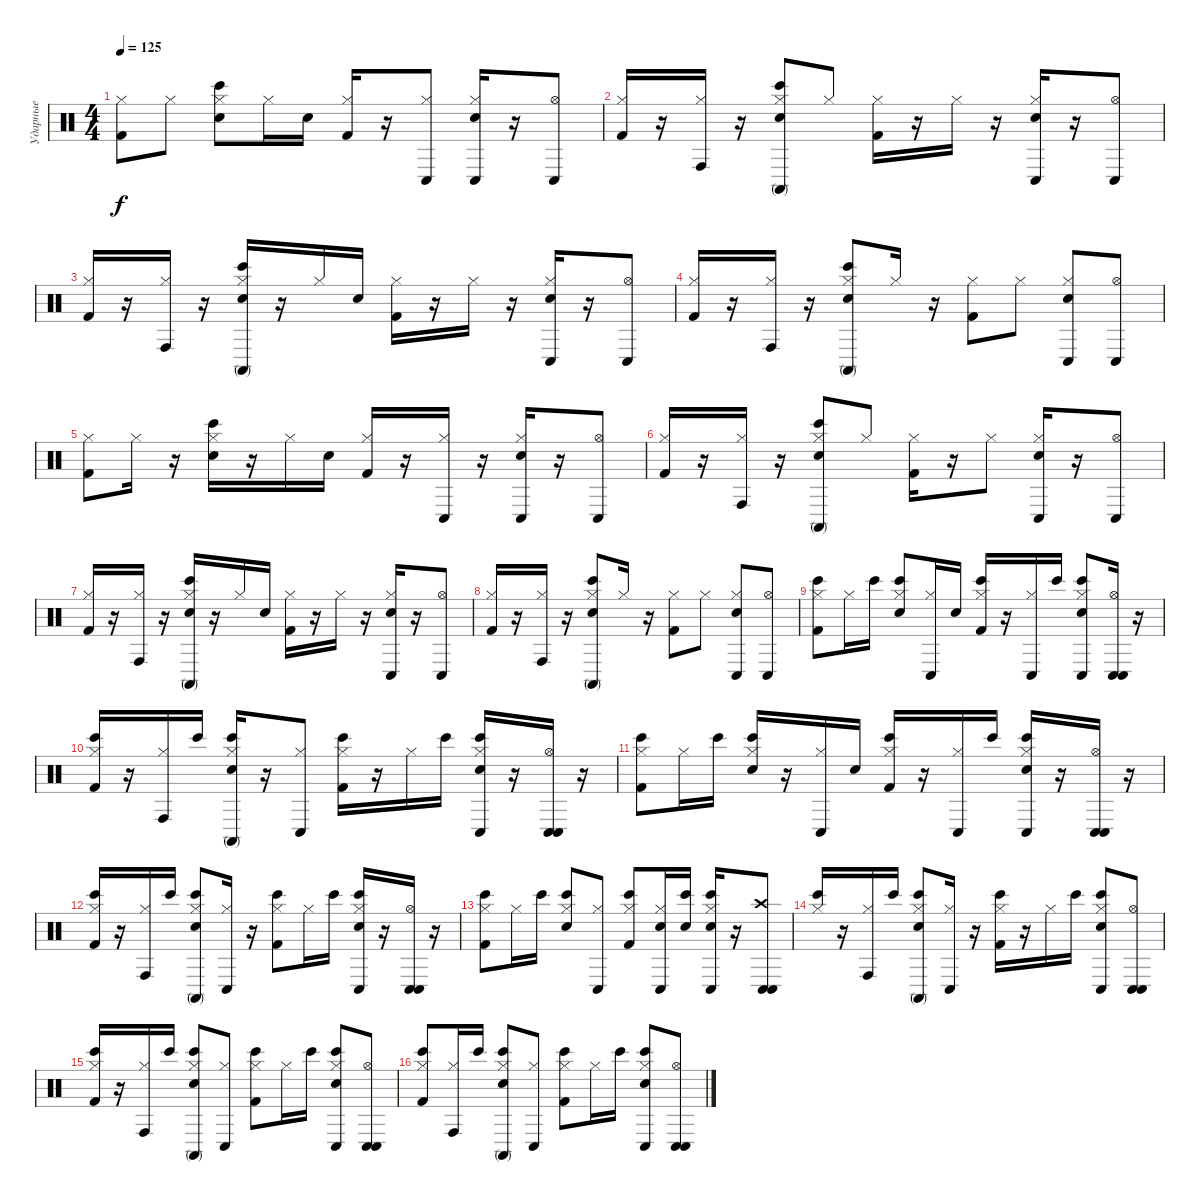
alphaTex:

\track ("Ударные" "Ударные") {instrument percussion}
\staff {score}
\articulation defaults
\ts (4 4)
\tempo 125
\clef neutral
\ks c
("Hi-Hat (closed)" "Kick (hit) 2").8{dy f} "Hi-Hat (closed)".8 ("Hi-Hat (closed)" "Bongo High (hit)" "Electric Snare (hit)").8 "Hi-Hat (closed)".16 "Electric Snare (hit)".16 ("Hi-Hat (closed)" "Kick (hit) 2").16 r.16 ("Hi-Hat (closed)" "Conga low (hit)").8 ("Hi-Hat (closed)" "Conga low (hit)" "Electric Snare (hit)").16 r.16 ("Hi-Hat (open)" "Conga low (hit)").8 |
("Hi-Hat (closed)" "Kick (hit) 2").16 r.16 ("Hi-Hat (closed)" "Conga high (hit)").16 r.16 ("Hi-Hat (closed)" "Bongo High (hit)" "Conga high (mute)" "Electric Snare (hit)").8 "Hi-Hat (closed)".8 ("Hi-Hat (closed)" "Kick (hit) 2").16 r.16 "Hi-Hat (closed)".16 r.16 ("Hi-Hat (closed)" "Conga low (hit)" "Electric Snare (hit)").16 r.16 ("Hi-Hat (open)" "Conga low (hit)").8 |
("Hi-Hat (closed)" "Kick (hit) 2").16 r.16 ("Hi-Hat (closed)" "Conga high (hit)").16 r.16 ("Hi-Hat (closed)" "Bongo High (hit)" "Conga high (mute)" "Electric Snare (hit)").16 r.16 "Hi-Hat (closed)".16 "Electric Snare (hit)".16 ("Hi-Hat (closed)" "Kick (hit) 2").16 r.16 "Hi-Hat (closed)".16 r.16 ("Hi-Hat (closed)" "Conga low (hit)" "Electric Snare (hit)").16 r.16 ("Hi-Hat (open)" "Conga low (hit)").8 |
("Hi-Hat (closed)" "Kick (hit) 2").16 r.16 ("Hi-Hat (closed)" "Conga high (hit)").16 r.16 ("Hi-Hat (closed)" "Bongo High (hit)" "Conga high (mute)" "Electric Snare (hit)").8 "Hi-Hat (closed)".16 r.16 ("Hi-Hat (closed)" "Kick (hit) 2").8 "Hi-Hat (closed)".8 ("Hi-Hat (closed)" "Conga low (hit)" "Electric Snare (hit)").8 ("Hi-Hat (open)" "Conga low (hit)").8 |
("Hi-Hat (closed)" "Kick (hit) 2").8 "Hi-Hat (closed)".16 r.16 ("Hi-Hat (closed)" "Bongo High (hit)" "Electric Snare (hit)").16 r.16 "Hi-Hat (closed)".16 "Electric Snare (hit)".16 ("Hi-Hat (closed)" "Kick (hit) 2").16 r.16 ("Hi-Hat (closed)" "Conga low (hit)").16 r.16 ("Hi-Hat (closed)" "Conga low (hit)" "Electric Snare (hit)").16 r.16 ("Hi-Hat (open)" "Conga low (hit)").8 |
("Hi-Hat (closed)" "Kick (hit) 2").16 r.16 ("Hi-Hat (closed)" "Conga high (hit)").16 r.16 ("Hi-Hat (closed)" "Bongo High (hit)" "Conga high (mute)" "Electric Snare (hit)").8 "Hi-Hat (closed)".8 ("Hi-Hat (closed)" "Kick (hit) 2").16 r.16 "Hi-Hat (closed)".8 ("Hi-Hat (closed)" "Conga low (hit)" "Electric Snare (hit)").16 r.16 ("Hi-Hat (open)" "Conga low (hit)").8 |
("Hi-Hat (closed)" "Kick (hit) 2").16 r.16 ("Hi-Hat (closed)" "Conga high (hit)").16 r.16 ("Hi-Hat (closed)" "Bongo High (hit)" "Conga high (mute)" "Electric Snare (hit)").16 r.16 "Hi-Hat (closed)".16 "Electric Snare (hit)".16 ("Hi-Hat (closed)" "Kick (hit) 2").16 r.16 "Hi-Hat (closed)".16 r.16 ("Hi-Hat (closed)" "Conga low (hit)" "Electric Snare (hit)").16 r.16 ("Hi-Hat (open)" "Conga low (hit)").8 |
("Hi-Hat (closed)" "Kick (hit) 2").16 r.16 ("Hi-Hat (closed)" "Conga high (hit)").16 r.16 ("Hi-Hat (closed)" "Bongo High (hit)" "Conga high (mute)" "Electric Snare (hit)").8 "Hi-Hat (closed)".16 r.16 ("Hi-Hat (closed)" "Kick (hit) 2").8 "Hi-Hat (closed)".8 ("Hi-Hat (closed)" "Conga low (hit)" "Electric Snare (hit)").8 ("Hi-Hat (open)" "Conga low (hit)").8 |
("Hi-Hat (closed)" "Bongo High (hit)" "Kick (hit) 2").8 "Hi-Hat (closed)".16 "Bongo High (hit)".16 ("Hi-Hat (closed)" "Bongo High (hit)" "Electric Snare (hit)").8 ("Hi-Hat (closed)" "Conga low (hit)").16 "Electric Snare (hit)".16 ("Hi-Hat (closed)" "Bongo High (hit)" "Kick (hit) 2").16 r.16 ("Hi-Hat (closed)" "Conga low (hit)").16 "Bongo High (hit)".16 ("Hi-Hat (closed)" "Bongo High (hit)" "Conga low (hit)" "Electric Snare (hit)").8 ("Hi-Hat (open)" "Conga low (hit)" "Conga low (hit)").16 r.16 |
("Hi-Hat (closed)" "Bongo High (hit)" "Kick (hit) 2").16 r.16 ("Hi-Hat (closed)" "Conga high (hit)").16 "Bongo High (hit)".16 ("Hi-Hat (closed)" "Bongo High (hit)" "Conga high (mute)" "Electric Snare (hit)").16 r.16 ("Hi-Hat (closed)" "Conga low (hit)").8 ("Hi-Hat (closed)" "Bongo High (hit)" "Kick (hit) 2").16 r.16 "Hi-Hat (closed)".16 "Bongo High (hit)".16 ("Hi-Hat (closed)" "Bongo High (hit)" "Conga low (hit)" "Electric Snare (hit)").16 r.16 ("Hi-Hat (open)" "Conga low (hit)" "Conga low (hit)").16 r.16 |
("Hi-Hat (closed)" "Bongo High (hit)" "Kick (hit) 2").8 "Hi-Hat (closed)".16 "Bongo High (hit)".16 ("Hi-Hat (closed)" "Bongo High (hit)" "Electric Snare (hit)").16 r.16 ("Hi-Hat (closed)" "Conga low (hit)").16 "Electric Snare (hit)".16 ("Hi-Hat (closed)" "Bongo High (hit)" "Kick (hit) 2").16 r.16 ("Hi-Hat (closed)" "Conga low (hit)").16 "Bongo High (hit)".16 ("Hi-Hat (closed)" "Bongo High (hit)" "Conga low (hit)" "Electric Snare (hit)").16 r.16 ("Hi-Hat (open)" "Conga low (hit)" "Conga low (hit)").16 r.16 |
("Hi-Hat (closed)" "Bongo High (hit)" "Kick (hit) 2").16 r.16 ("Hi-Hat (closed)" "Conga high (hit)").16 "Bongo High (hit)".16 ("Hi-Hat (closed)" "Bongo High (hit)" "Conga high (mute)" "Electric Snare (hit)").8 ("Hi-Hat (closed)" "Conga low (hit)").16 r.16 ("Hi-Hat (closed)" "Bongo High (hit)" "Kick (hit) 2").8 "Hi-Hat (closed)".16 "Bongo High (hit)".16 ("Hi-Hat (closed)" "Bongo High (hit)" "Conga low (hit)" "Electric Snare (hit)").16 r.16 ("Hi-Hat (open)" "Conga low (hit)" "Conga low (hit)").16 r.16 |
("Hi-Hat (closed)" "Bongo High (hit)" "Kick (hit) 2").8 "Hi-Hat (closed)".16 "Bongo High (hit)".16 ("Hi-Hat (closed)" "Bongo High (hit)" "Electric Snare (hit)").8 ("Hi-Hat (closed)" "Conga low (hit)").8 ("Hi-Hat (closed)" "Bongo High (hit)" "Kick (hit) 2").8 ("Hi-Hat (closed)" "Conga low (hit)" "Electric Snare (hit)").16 ("Bongo High (hit)" "Electric Snare (hit)").16 ("Hi-Hat (closed)" "Bongo High (hit)" "Conga low (hit)" "Electric Snare (hit)").16 r.16 ("Crash high (hit)" "Conga low (hit)" "Conga low (hit)").8 |
("Hi-Hat (closed)" "Bongo High (hit)").16 r.16 ("Hi-Hat (closed)" "Conga high (hit)").16 "Bongo High (hit)".16 ("Hi-Hat (closed)" "Bongo High (hit)" "Conga high (mute)" "Electric Snare (hit)").8 ("Hi-Hat (closed)" "Conga low (hit)").16 r.16 ("Hi-Hat (closed)" "Bongo High (hit)" "Kick (hit) 2").16 r.16 "Hi-Hat (closed)".16 "Bongo High (hit)".16 ("Hi-Hat (closed)" "Bongo High (hit)" "Conga low (hit)" "Electric Snare (hit)").8 ("Hi-Hat (open)" "Conga low (hit)" "Conga low (hit)").8 |
("Hi-Hat (closed)" "Bongo High (hit)" "Kick (hit) 2").16 r.16 ("Hi-Hat (closed)" "Conga high (hit)").16 "Bongo High (hit)".16 ("Hi-Hat (closed)" "Bongo High (hit)" "Conga high (mute)" "Electric Snare (hit)").8 ("Hi-Hat (closed)" "Conga low (hit)").8 ("Hi-Hat (closed)" "Bongo High (hit)" "Kick (hit) 2").8 "Hi-Hat (closed)".16 "Bongo High (hit)".16 ("Hi-Hat (closed)" "Bongo High (hit)" "Conga low (hit)" "Electric Snare (hit)").8 ("Hi-Hat (open)" "Conga low (hit)" "Conga low (hit)").8 |
("Hi-Hat (closed)" "Bongo High (hit)" "Kick (hit) 2").8 ("Hi-Hat (closed)" "Conga high (hit)").16 "Bongo High (hit)".16 ("Hi-Hat (closed)" "Bongo High (hit)" "Conga high (mute)" "Electric Snare (hit)").8 ("Hi-Hat (closed)" "Conga low (hit)").8 ("Hi-Hat (closed)" "Bongo High (hit)" "Kick (hit) 2").8 "Hi-Hat (closed)".16 "Bongo High (hit)".16 ("Hi-Hat (closed)" "Bongo High (hit)" "Conga low (hit)" "Electric Snare (hit)").8 ("Hi-Hat (open)" "Conga low (hit)" "Conga low (hit)").8
